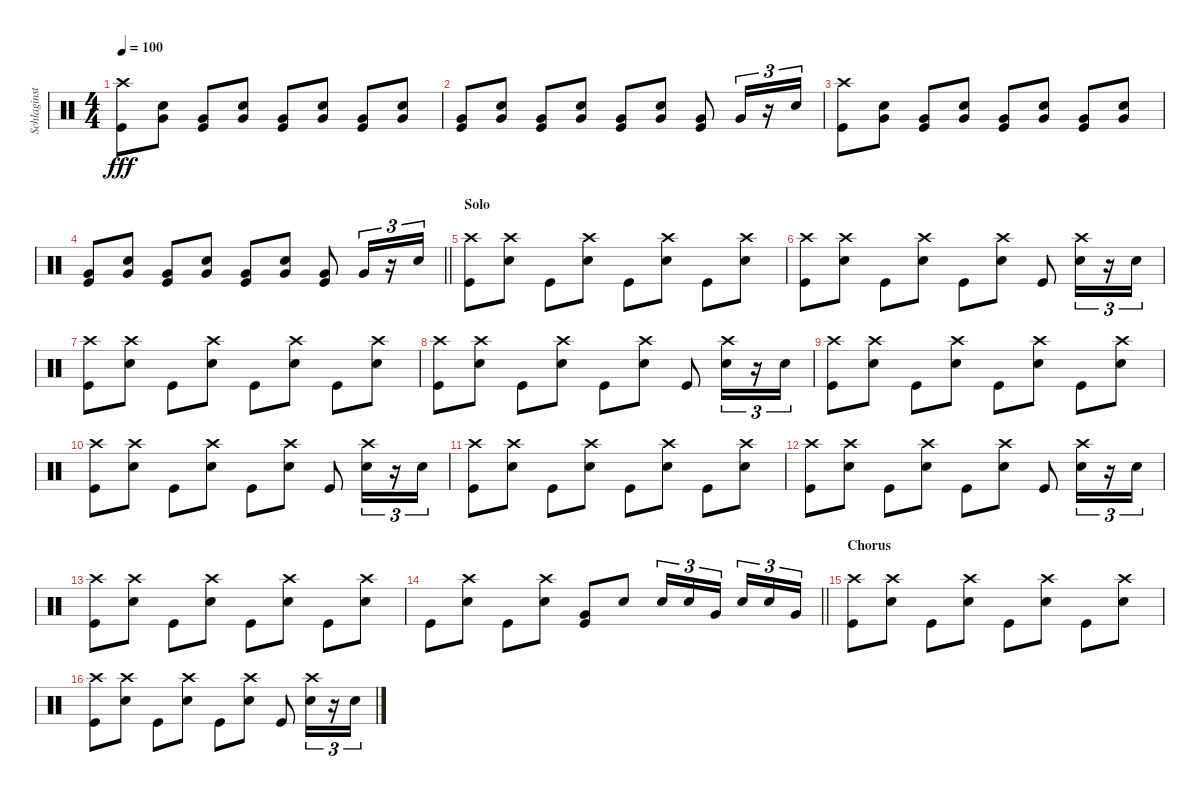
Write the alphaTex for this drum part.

\track ("Schlaginstrumente - Auswahl" "Schlaginst") {instrument percussion}
\staff {score}
\articulation defaults
\ts (4 4)
\tempo 100
\clef neutral
\ks c
("Crash high (hit)" "Kick (hit)").8{dy fff} ("Very Low Tom (hit)" "Snare (hit) 2").8 ("Very Low Tom (hit)" "Kick (hit)").8 ("Very Low Tom (hit)" "Snare (hit) 2").8 ("Very Low Tom (hit)" "Kick (hit)").8 ("Very Low Tom (hit)" "Snare (hit) 2").8 ("Very Low Tom (hit)" "Kick (hit)").8 ("Very Low Tom (hit)" "Snare (hit) 2").8 |
("Very Low Tom (hit)" "Kick (hit)").8 ("Very Low Tom (hit)" "Snare (hit) 2").8 ("Very Low Tom (hit)" "Kick (hit)").8 ("Very Low Tom (hit)" "Snare (hit) 2").8 ("Very Low Tom (hit)" "Kick (hit)").8 ("Very Low Tom (hit)" "Snare (hit) 2").8 ("Very Low Tom (hit)" "Kick (hit)").8 "Very Low Tom (hit)".16{tu (3 2)} r.16{tu (3 2)} "Snare (hit) 2".16{tu (3 2)} |
("Crash high (hit)" "Kick (hit)").8 ("Very Low Tom (hit)" "Snare (hit) 2").8 ("Very Low Tom (hit)" "Kick (hit)").8 ("Very Low Tom (hit)" "Snare (hit) 2").8 ("Very Low Tom (hit)" "Kick (hit)").8 ("Very Low Tom (hit)" "Snare (hit) 2").8 ("Very Low Tom (hit)" "Kick (hit)").8 ("Very Low Tom (hit)" "Snare (hit) 2").8 |
\barLineRight lightlight
("Very Low Tom (hit)" "Kick (hit)").8 ("Very Low Tom (hit)" "Snare (hit) 2").8 ("Very Low Tom (hit)" "Kick (hit)").8 ("Very Low Tom (hit)" "Snare (hit) 2").8 ("Very Low Tom (hit)" "Kick (hit)").8 ("Very Low Tom (hit)" "Snare (hit) 2").8 ("Very Low Tom (hit)" "Kick (hit)").8 "Very Low Tom (hit)".16{tu (3 2)} r.16{tu (3 2)} "Snare (hit) 2".16{tu (3 2)} |
\section ("" "Solo")
("Crash high (hit)" "Kick (hit)").8 ("Crash high (hit)" "Snare (hit) 2").8 "Kick (hit)".8 ("Crash high (hit)" "Snare (hit) 2").8 "Kick (hit)".8 ("Crash high (hit)" "Snare (hit) 2").8 "Kick (hit)".8 ("Crash high (hit)" "Snare (hit) 2").8 |
("Crash high (hit)" "Kick (hit)").8 ("Crash high (hit)" "Snare (hit) 2").8 "Kick (hit)".8 ("Crash high (hit)" "Snare (hit) 2").8 "Kick (hit)".8 ("Crash high (hit)" "Snare (hit) 2").8 "Kick (hit)".8 ("Crash high (hit)" "Snare (hit) 2").16{tu (3 2)} r.16{tu (3 2)} "Snare (hit) 2".16{tu (3 2)} |
("Crash high (hit)" "Kick (hit)").8 ("Crash high (hit)" "Snare (hit) 2").8 "Kick (hit)".8 ("Crash high (hit)" "Snare (hit) 2").8 "Kick (hit)".8 ("Crash high (hit)" "Snare (hit) 2").8 "Kick (hit)".8 ("Crash high (hit)" "Snare (hit) 2").8 |
("Crash high (hit)" "Kick (hit)").8 ("Crash high (hit)" "Snare (hit) 2").8 "Kick (hit)".8 ("Crash high (hit)" "Snare (hit) 2").8 "Kick (hit)".8 ("Crash high (hit)" "Snare (hit) 2").8 "Kick (hit)".8 ("Crash high (hit)" "Snare (hit) 2").16{tu (3 2)} r.16{tu (3 2)} "Snare (hit) 2".16{tu (3 2)} |
("Crash high (hit)" "Kick (hit)").8 ("Crash high (hit)" "Snare (hit) 2").8 "Kick (hit)".8 ("Crash high (hit)" "Snare (hit) 2").8 "Kick (hit)".8 ("Crash high (hit)" "Snare (hit) 2").8 "Kick (hit)".8 ("Crash high (hit)" "Snare (hit) 2").8 |
("Crash high (hit)" "Kick (hit)").8 ("Crash high (hit)" "Snare (hit) 2").8 "Kick (hit)".8 ("Crash high (hit)" "Snare (hit) 2").8 "Kick (hit)".8 ("Crash high (hit)" "Snare (hit) 2").8 "Kick (hit)".8 ("Crash high (hit)" "Snare (hit) 2").16{tu (3 2)} r.16{tu (3 2)} "Snare (hit) 2".16{tu (3 2)} |
("Crash high (hit)" "Kick (hit)").8 ("Crash high (hit)" "Snare (hit) 2").8 "Kick (hit)".8 ("Crash high (hit)" "Snare (hit) 2").8 "Kick (hit)".8 ("Crash high (hit)" "Snare (hit) 2").8 "Kick (hit)".8 ("Crash high (hit)" "Snare (hit) 2").8 |
("Crash high (hit)" "Kick (hit)").8 ("Crash high (hit)" "Snare (hit) 2").8 "Kick (hit)".8 ("Crash high (hit)" "Snare (hit) 2").8 "Kick (hit)".8 ("Crash high (hit)" "Snare (hit) 2").8 "Kick (hit)".8 ("Crash high (hit)" "Snare (hit) 2").16{tu (3 2)} r.16{tu (3 2)} "Snare (hit) 2".16{tu (3 2)} |
("Crash high (hit)" "Kick (hit)").8 ("Crash high (hit)" "Snare (hit) 2").8 "Kick (hit)".8 ("Crash high (hit)" "Snare (hit) 2").8 "Kick (hit)".8 ("Crash high (hit)" "Snare (hit) 2").8 "Kick (hit)".8 ("Crash high (hit)" "Snare (hit) 2").8 |
\barLineRight lightlight "Kick (hit)".8
("Crash high (hit)" "Snare (hit) 2").8 "Kick (hit)".8 ("Crash high (hit)" "Snare (hit) 2").8 ("Very Low Tom (hit)" "Kick (hit)").8 "Snare (hit) 2".8 "Snare (hit) 2".16{tu (3 2)} "Snare (hit) 2".16{tu (3 2)} "Very Low Tom (hit)".16{tu (3 2) beam splitsecondary} "Snare (hit) 2".16{tu (3 2)} "Snare (hit) 2".16{tu (3 2)} "Very Low Tom (hit)".16{tu (3 2)} |
\section ("" "Chorus")
("Crash high (hit)" "Kick (hit)").8 ("Crash high (hit)" "Snare (hit) 2").8 "Kick (hit)".8 ("Crash high (hit)" "Snare (hit) 2").8 "Kick (hit)".8 ("Crash high (hit)" "Snare (hit) 2").8 "Kick (hit)".8 ("Crash high (hit)" "Snare (hit) 2").8 |
("Crash high (hit)" "Kick (hit)").8 ("Crash high (hit)" "Snare (hit) 2").8 "Kick (hit)".8 ("Crash high (hit)" "Snare (hit) 2").8 "Kick (hit)".8 ("Crash high (hit)" "Snare (hit) 2").8 "Kick (hit)".8 ("Crash high (hit)" "Snare (hit) 2").16{tu (3 2)} r.16{tu (3 2)} "Snare (hit) 2".16{tu (3 2)}
